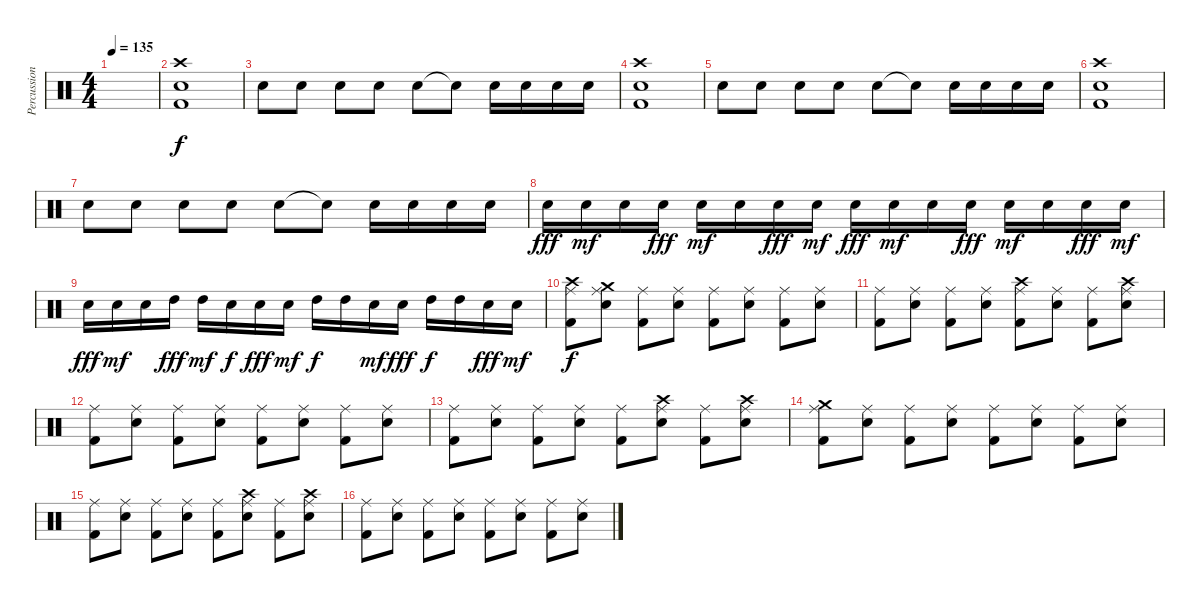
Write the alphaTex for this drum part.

\track ("Percussion" "Percussion") {instrument percussion}
\staff {score}
\articulation defaults
\ts (4 4)
\tempo 135
\clef neutral
\ks c
|
("Crash high (hit)" "Electric Snare (hit)" "Kick (hit) 2").1 |
"Electric Snare (hit)".8 "Electric Snare (hit)".8 "Electric Snare (hit)".8 "Electric Snare (hit)".8 "Electric Snare (hit)".8 "Snare (hit)"{t}.8 "Electric Snare (hit)".16 "Electric Snare (hit)".16 "Electric Snare (hit)".16 "Electric Snare (hit)".16 |
("Crash high (hit)" "Electric Snare (hit)" "Kick (hit) 2").1 |
"Electric Snare (hit)".8 "Electric Snare (hit)".8 "Electric Snare (hit)".8 "Electric Snare (hit)".8 "Electric Snare (hit)".8 "Snare (hit)"{t}.8 "Electric Snare (hit)".16 "Electric Snare (hit)".16 "Electric Snare (hit)".16 "Electric Snare (hit)".16 |
("Crash high (hit)" "Electric Snare (hit)" "Kick (hit) 2").1 |
"Electric Snare (hit)".8 "Electric Snare (hit)".8 "Electric Snare (hit)".8 "Electric Snare (hit)".8 "Electric Snare (hit)".8 "Snare (hit)"{t}.8 "Electric Snare (hit)".16 "Electric Snare (hit)".16 "Electric Snare (hit)".16 "Electric Snare (hit)".16 |
"Electric Snare (hit)".16{dy fff} "Electric Snare (hit)".16{dy mf} "Electric Snare (hit)".16 "Electric Snare (hit)".16{dy fff} "Electric Snare (hit)".16{dy mf} "Electric Snare (hit)".16 "Electric Snare (hit)".16{dy fff} "Electric Snare (hit)".16{dy mf} "Electric Snare (hit)".16{dy fff} "Electric Snare (hit)".16{dy mf} "Electric Snare (hit)".16 "Electric Snare (hit)".16{dy fff} "Electric Snare (hit)".16{dy mf} "Electric Snare (hit)".16 "Electric Snare (hit)".16{dy fff} "Electric Snare (hit)".16{dy mf} |
"Electric Snare (hit)".16{dy fff} "Electric Snare (hit)".16{dy mf} "Electric Snare (hit)".16 "High Tom (hit)".16{dy fff} "High Tom (hit)".16{dy mf} "Electric Snare (hit)".16{dy f} "Electric Snare (hit)".16{dy fff} "Electric Snare (hit)".16{dy mf} "High Tom (hit)".16{dy f} "High Tom (hit)".16 "Electric Snare (hit)".16{dy mf} "Electric Snare (hit)".16{dy fff} "High Tom (hit)".16{dy f} "High Tom (hit)".16 "Electric Snare (hit)".16{dy fff} "Electric Snare (hit)".16{dy mf} |
("Crash high (hit)" "Ride (middle)" "Kick (hit) 2").8{dy f} ("Crash medium (hit)" "Ride (middle)" "Electric Snare (hit)").8 ("Ride (middle)" "Kick (hit) 2").8 ("Ride (middle)" "Electric Snare (hit)").8 ("Ride (middle)" "Kick (hit) 2").8 ("Ride (middle)" "Electric Snare (hit)").8 ("Ride (middle)" "Kick (hit) 2").8 ("Ride (middle)" "Electric Snare (hit)").8 |
("Ride (middle)" "Kick (hit) 2").8 ("Ride (middle)" "Electric Snare (hit)").8 ("Ride (middle)" "Kick (hit) 2").8 ("Ride (middle)" "Electric Snare (hit)").8 ("Crash high (hit)" "Ride (middle)" "Kick (hit) 2").8 ("Ride (middle)" "Electric Snare (hit)").8 ("Ride (middle)" "Kick (hit) 2").8 ("Crash high (hit)" "Ride (middle)" "Electric Snare (hit)").8 |
("Ride (middle)" "Kick (hit) 2").8 ("Ride (middle)" "Electric Snare (hit)").8 ("Ride (middle)" "Kick (hit) 2").8 ("Ride (middle)" "Electric Snare (hit)").8 ("Ride (middle)" "Kick (hit) 2").8 ("Ride (middle)" "Electric Snare (hit)").8 ("Ride (middle)" "Kick (hit) 2").8 ("Ride (middle)" "Electric Snare (hit)").8 |
("Ride (middle)" "Kick (hit) 2").8 ("Ride (middle)" "Electric Snare (hit)").8 ("Ride (middle)" "Kick (hit) 2").8 ("Ride (middle)" "Electric Snare (hit)").8 ("Ride (middle)" "Kick (hit) 2").8 ("Crash high (hit)" "Ride (middle)" "Electric Snare (hit)").8 ("Ride (middle)" "Kick (hit) 2").8 ("Crash high (hit)" "Ride (middle)" "Electric Snare (hit)").8 |
("Crash medium (hit)" "Ride (middle)" "Kick (hit) 2").8 ("Ride (middle)" "Electric Snare (hit)").8 ("Ride (middle)" "Kick (hit) 2").8 ("Ride (middle)" "Electric Snare (hit)").8 ("Ride (middle)" "Kick (hit) 2").8 ("Ride (middle)" "Electric Snare (hit)").8 ("Ride (middle)" "Kick (hit) 2").8 ("Ride (middle)" "Electric Snare (hit)").8 |
("Ride (middle)" "Kick (hit) 2").8 ("Ride (middle)" "Electric Snare (hit)").8 ("Ride (middle)" "Kick (hit) 2").8 ("Ride (middle)" "Electric Snare (hit)").8 ("Ride (middle)" "Kick (hit) 2").8 ("Crash high (hit)" "Ride (middle)" "Electric Snare (hit)").8 ("Ride (middle)" "Kick (hit) 2").8 ("Crash high (hit)" "Ride (middle)" "Electric Snare (hit)").8 |
("Ride (middle)" "Kick (hit) 2").8 ("Ride (middle)" "Electric Snare (hit)").8 ("Ride (middle)" "Kick (hit) 2").8 ("Ride (middle)" "Electric Snare (hit)").8 ("Ride (middle)" "Kick (hit) 2").8 ("Ride (middle)" "Electric Snare (hit)").8 ("Ride (middle)" "Kick (hit) 2").8 ("Ride (middle)" "Electric Snare (hit)").8
